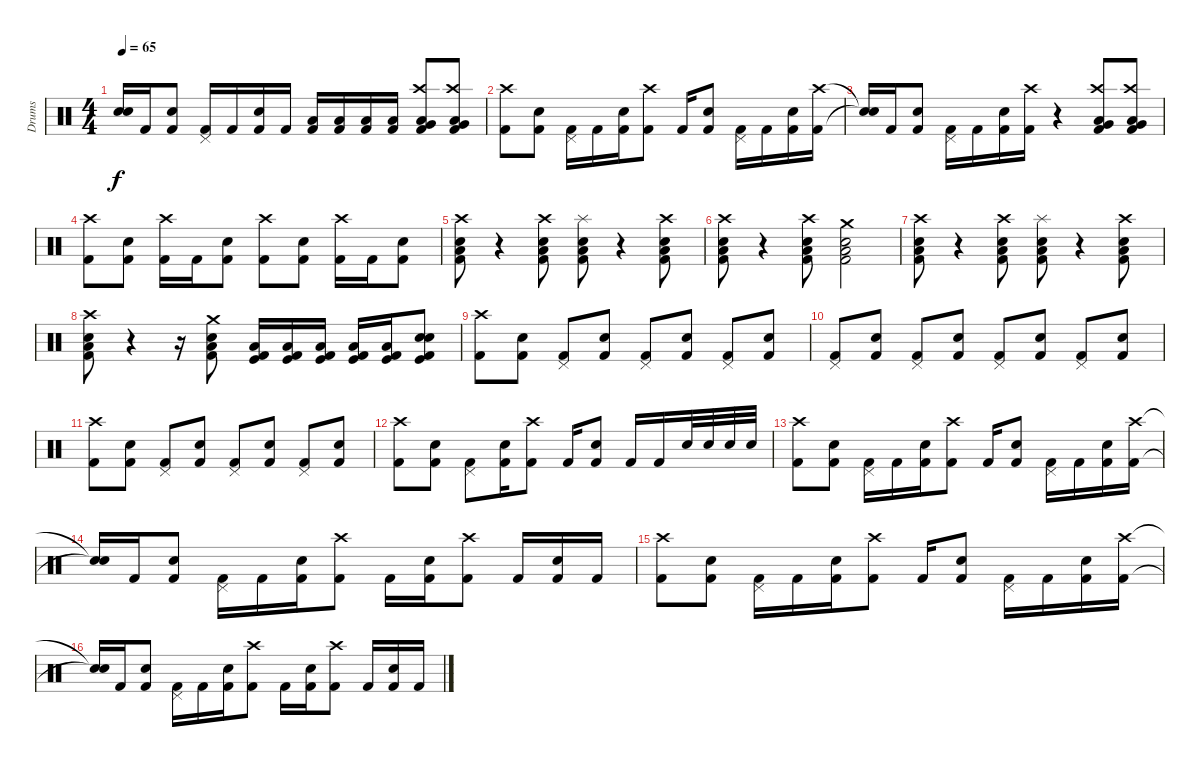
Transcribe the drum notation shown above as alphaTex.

\track ("Drums" "Drums") {instrument percussion}
\staff {score}
\articulation defaults
\ts (4 4)
\tempo 65
\clef neutral
\ks c
("Snare (hit)"{t} "Snare (hit)"{t}).16{dy f} "Kick (hit) 2".16 ("Electric Snare (hit)" "Kick (hit) 2").8 ("Pedal Hi-Hat (hit)" "Kick (hit) 2").16 "Kick (hit) 2".16 ("Electric Snare (hit)" "Kick (hit) 2").16 "Kick (hit) 2".16 ("Low Floor Tom (hit)" "Kick (hit) 2").16 ("Low Floor Tom (hit)" "Kick (hit) 2").16 ("Low Floor Tom (hit)" "Kick (hit) 2").16 ("Low Floor Tom (hit)" "Kick (hit) 2").16 ("Crash high (hit)" "Very Low Tom (hit)" "Low Floor Tom (hit)" "Kick (hit) 2").8 ("Crash high (hit)" "Very Low Tom (hit)" "Low Floor Tom (hit)" "Kick (hit) 2").8 |
("Crash high (hit)" "Kick (hit) 2").8 ("Electric Snare (hit)" "Kick (hit) 2").8 ("Pedal Hi-Hat (hit)" "Kick (hit) 2").16 "Kick (hit) 2".16 ("Electric Snare (hit)" "Kick (hit) 2").16 ("Crash high (hit)" "Kick (hit) 2").8 "Kick (hit) 2".16 ("Electric Snare (hit)" "Kick (hit) 2").8 ("Pedal Hi-Hat (hit)" "Kick (hit) 2").16 "Kick (hit) 2".16 ("Electric Snare (hit)" "Kick (hit) 2").16 ("Crash high (hit)" "Kick (hit) 2").16 |
("Snare (hit)"{t} "Snare (hit)"{t}).16 "Kick (hit) 2".16 ("Electric Snare (hit)" "Kick (hit) 2").8 ("Pedal Hi-Hat (hit)" "Kick (hit) 2").16 "Kick (hit) 2".16 ("Electric Snare (hit)" "Kick (hit) 2").16 ("Crash high (hit)" "Kick (hit) 2").16 r.4 ("Crash high (hit)" "Very Low Tom (hit)" "Low Floor Tom (hit)" "Kick (hit) 2").8 ("Crash high (hit)" "Very Low Tom (hit)" "Low Floor Tom (hit)" "Kick (hit) 2").8 |
("Crash high (hit)" "Kick (hit) 2").8 ("Electric Snare (hit)" "Kick (hit) 2").8 ("Crash high (hit)" "Kick (hit) 2").16 "Kick (hit) 2".16 ("Electric Snare (hit)" "Kick (hit) 2").8 ("Crash high (hit)" "Kick (hit) 2").8 ("Electric Snare (hit)" "Kick (hit) 2").8 ("Crash high (hit)" "Kick (hit) 2").16 "Kick (hit) 2".16 ("Electric Snare (hit)" "Kick (hit) 2").8 |
("Crash high (hit)" "Low Floor Tom (hit)" "Electric Snare (hit)" "Kick (hit) 2").8 r.4 ("Crash high (hit)" "Low Floor Tom (hit)" "Electric Snare (hit)" "Kick (hit) 2").8 ("Splash (hit)" "Low Floor Tom (hit)" "Electric Snare (hit)" "Kick (hit) 2").8 r.4 ("Crash high (hit)" "Low Floor Tom (hit)" "Electric Snare (hit)" "Kick (hit) 2").8 |
("Crash high (hit)" "Low Floor Tom (hit)" "Electric Snare (hit)" "Kick (hit) 2").8 r.4 ("Crash high (hit)" "Low Floor Tom (hit)" "Electric Snare (hit)" "Kick (hit) 2").8 ("Crash medium (hit)" "Low Floor Tom (hit)" "Electric Snare (hit)" "Kick (hit) 2").2 |
("Crash high (hit)" "Low Floor Tom (hit)" "Electric Snare (hit)" "Kick (hit) 2").8 r.4 ("Crash high (hit)" "Low Floor Tom (hit)" "Electric Snare (hit)" "Kick (hit) 2").8 ("Splash (hit)" "Low Floor Tom (hit)" "Electric Snare (hit)" "Kick (hit) 2").8 r.4 ("Crash high (hit)" "Low Floor Tom (hit)" "Electric Snare (hit)" "Kick (hit) 2").8 |
("Crash high (hit)" "Low Floor Tom (hit)" "Electric Snare (hit)" "Kick (hit) 2").8 r.4 r.16 ("Crash medium (hit)" "Low Floor Tom (hit)" "Electric Snare (hit)" "Kick (hit) 2").8 ("Low Floor Tom (hit)" "Kick (hit)" "Kick (hit) 2").16 ("Low Floor Tom (hit)" "Kick (hit)" "Kick (hit) 2").16 ("Low Floor Tom (hit)" "Kick (hit)" "Kick (hit) 2").16 ("Low Floor Tom (hit)" "Kick (hit)" "Kick (hit) 2").16 ("Low Floor Tom (hit)" "Kick (hit)" "Kick (hit) 2").16 ("Snare (hit) 2" "Snare (hit) 2" "Kick (hit)" "Kick (hit) 2").8 |
("Crash high (hit)" "Kick (hit) 2").8 ("Electric Snare (hit)" "Kick (hit) 2").8 ("Pedal Hi-Hat (hit)" "Kick (hit) 2").8 ("Electric Snare (hit)" "Kick (hit) 2").8 ("Pedal Hi-Hat (hit)" "Kick (hit) 2").8 ("Electric Snare (hit)" "Kick (hit) 2").8 ("Pedal Hi-Hat (hit)" "Kick (hit) 2").8 ("Electric Snare (hit)" "Kick (hit) 2").8 |
("Pedal Hi-Hat (hit)" "Kick (hit) 2").8 ("Electric Snare (hit)" "Kick (hit) 2").8 ("Pedal Hi-Hat (hit)" "Kick (hit) 2").8 ("Electric Snare (hit)" "Kick (hit) 2").8 ("Pedal Hi-Hat (hit)" "Kick (hit) 2").8 ("Electric Snare (hit)" "Kick (hit) 2").8 ("Pedal Hi-Hat (hit)" "Kick (hit) 2").8 ("Electric Snare (hit)" "Kick (hit) 2").8 |
("Crash high (hit)" "Kick (hit) 2").8 ("Electric Snare (hit)" "Kick (hit) 2").8 ("Pedal Hi-Hat (hit)" "Kick (hit) 2").8 ("Electric Snare (hit)" "Kick (hit) 2").8 ("Pedal Hi-Hat (hit)" "Kick (hit) 2").8 ("Electric Snare (hit)" "Kick (hit) 2").8 ("Pedal Hi-Hat (hit)" "Kick (hit) 2").8 ("Electric Snare (hit)" "Kick (hit) 2").8 |
("Crash high (hit)" "Kick (hit) 2").8 ("Electric Snare (hit)" "Kick (hit) 2").8 ("Pedal Hi-Hat (hit)" "Kick (hit) 2").8 ("Electric Snare (hit)" "Kick (hit) 2").16 ("Crash high (hit)" "Kick (hit) 2").8 "Kick (hit) 2".16 ("Electric Snare (hit)" "Kick (hit) 2").8 "Kick (hit) 2".16 "Kick (hit) 2".16 "Electric Snare (hit)".32 "Electric Snare (hit)".32 "Electric Snare (hit)".32 "Electric Snare (hit)".32 |
("Crash high (hit)" "Kick (hit) 2").8 ("Electric Snare (hit)" "Kick (hit) 2").8 ("Pedal Hi-Hat (hit)" "Kick (hit) 2").16 "Kick (hit) 2".16 ("Electric Snare (hit)" "Kick (hit) 2").16 ("Crash high (hit)" "Kick (hit) 2").8 "Kick (hit) 2".16 ("Electric Snare (hit)" "Kick (hit) 2").8 ("Pedal Hi-Hat (hit)" "Kick (hit) 2").16 "Kick (hit) 2".16 ("Electric Snare (hit)" "Kick (hit) 2").16 ("Crash high (hit)" "Kick (hit) 2").16 |
("Snare (hit)"{t} "Snare (hit)"{t}).16 "Kick (hit) 2".16 ("Electric Snare (hit)" "Kick (hit) 2").8 ("Pedal Hi-Hat (hit)" "Kick (hit) 2").16 "Kick (hit) 2".16 ("Electric Snare (hit)" "Kick (hit) 2").16 ("Crash high (hit)" "Kick (hit) 2").8 "Kick (hit) 2".16 ("Electric Snare (hit)" "Kick (hit) 2").16 ("Crash high (hit)" "Kick (hit) 2").8 "Kick (hit) 2".16 ("Electric Snare (hit)" "Kick (hit) 2").16 "Kick (hit) 2".16 |
("Crash high (hit)" "Kick (hit) 2").8 ("Electric Snare (hit)" "Kick (hit) 2").8 ("Pedal Hi-Hat (hit)" "Kick (hit) 2").16 "Kick (hit) 2".16 ("Electric Snare (hit)" "Kick (hit) 2").16 ("Crash high (hit)" "Kick (hit) 2").8 "Kick (hit) 2".16 ("Electric Snare (hit)" "Kick (hit) 2").8 ("Pedal Hi-Hat (hit)" "Kick (hit) 2").16 "Kick (hit) 2".16 ("Electric Snare (hit)" "Kick (hit) 2").16 ("Crash high (hit)" "Kick (hit) 2").16 |
("Snare (hit)"{t} "Snare (hit)"{t}).16 "Kick (hit) 2".16 ("Electric Snare (hit)" "Kick (hit) 2").8 ("Pedal Hi-Hat (hit)" "Kick (hit) 2").16 "Kick (hit) 2".16 ("Electric Snare (hit)" "Kick (hit) 2").16 ("Crash high (hit)" "Kick (hit) 2").8 "Kick (hit) 2".16 ("Electric Snare (hit)" "Kick (hit) 2").16 ("Crash high (hit)" "Kick (hit) 2").8 "Kick (hit) 2".16 ("Electric Snare (hit)" "Kick (hit) 2").16 "Kick (hit) 2".16
